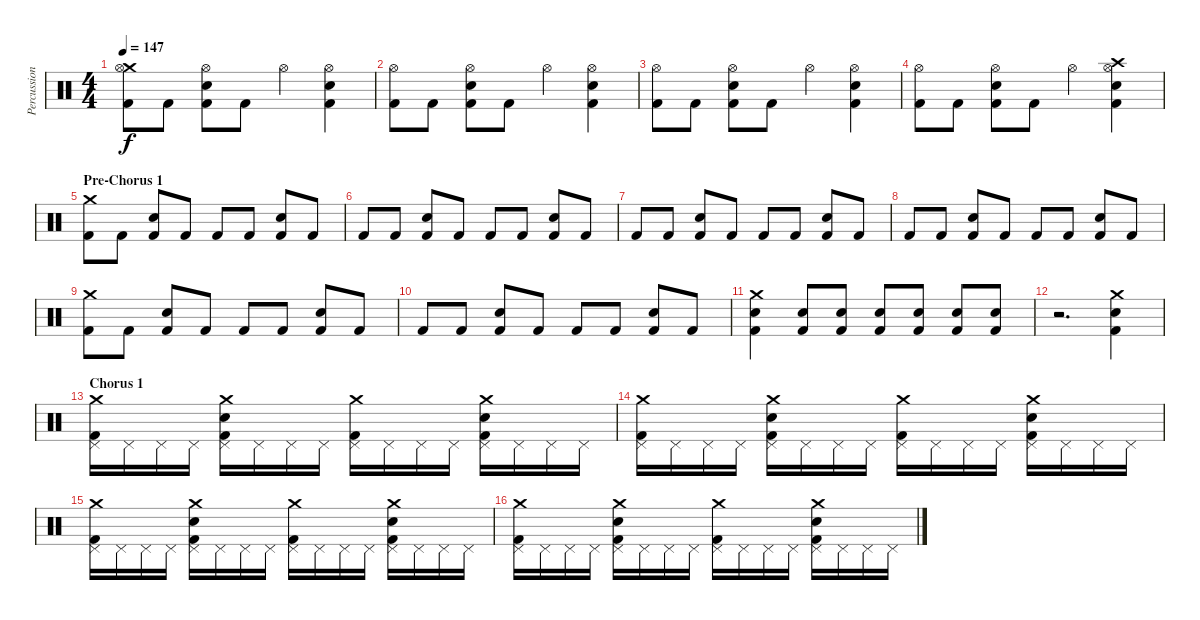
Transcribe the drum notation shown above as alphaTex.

\track ("Percussions" "Percussion") {instrument percussion}
\staff {score}
\articulation defaults
\ts (4 4)
\tempo 147
\clef neutral
\ks c
("Crash medium (hit)" "Hi-Hat (open)" "Kick (hit) 2").8{dy f} "Kick (hit) 2".8 ("Hi-Hat (open)" "Electric Snare (hit)" "Kick (hit) 2").8 "Kick (hit) 2".8 "Hi-Hat (open)".4 ("Hi-Hat (open)" "Electric Snare (hit)" "Kick (hit) 2").4 |
("Hi-Hat (open)" "Kick (hit) 2").8 "Kick (hit) 2".8 ("Hi-Hat (open)" "Electric Snare (hit)" "Kick (hit) 2").8 "Kick (hit) 2".8 "Hi-Hat (open)".4 ("Hi-Hat (open)" "Electric Snare (hit)" "Kick (hit) 2").4 |
("Hi-Hat (open)" "Kick (hit) 2").8 "Kick (hit) 2".8 ("Hi-Hat (open)" "Electric Snare (hit)" "Kick (hit) 2").8 "Kick (hit) 2".8 "Hi-Hat (open)".4 ("Hi-Hat (open)" "Electric Snare (hit)" "Kick (hit) 2").4 |
("Hi-Hat (open)" "Kick (hit) 2").8 "Kick (hit) 2".8 ("Hi-Hat (open)" "Electric Snare (hit)" "Kick (hit) 2").8 "Kick (hit) 2".8 "Hi-Hat (open)".4 ("Crash high (hit)" "Hi-Hat (open)" "Electric Snare (hit)" "Kick (hit) 2").4 |
\section ("" "Pre-Chorus 1")
("Crash medium (hit)" "Kick (hit) 2").8 "Kick (hit) 2".8 ("Electric Snare (hit)" "Kick (hit) 2").8 "Kick (hit) 2".8 "Kick (hit) 2".8 "Kick (hit) 2".8 ("Electric Snare (hit)" "Kick (hit) 2").8 "Kick (hit) 2".8 |
"Kick (hit) 2".8 "Kick (hit) 2".8 ("Electric Snare (hit)" "Kick (hit) 2").8 "Kick (hit) 2".8 "Kick (hit) 2".8 "Kick (hit) 2".8 ("Electric Snare (hit)" "Kick (hit) 2").8 "Kick (hit) 2".8 |
"Kick (hit) 2".8 "Kick (hit) 2".8 ("Electric Snare (hit)" "Kick (hit) 2").8 "Kick (hit) 2".8 "Kick (hit) 2".8 "Kick (hit) 2".8 ("Electric Snare (hit)" "Kick (hit) 2").8 "Kick (hit) 2".8 |
"Kick (hit) 2".8 "Kick (hit) 2".8 ("Electric Snare (hit)" "Kick (hit) 2").8 "Kick (hit) 2".8 "Kick (hit) 2".8 "Kick (hit) 2".8 ("Electric Snare (hit)" "Kick (hit) 2").8 "Kick (hit) 2".8 |
("Crash medium (hit)" "Kick (hit) 2").8 "Kick (hit) 2".8 ("Electric Snare (hit)" "Kick (hit) 2").8 "Kick (hit) 2".8 "Kick (hit) 2".8 "Kick (hit) 2".8 ("Electric Snare (hit)" "Kick (hit) 2").8 "Kick (hit) 2".8 |
"Kick (hit) 2".8 "Kick (hit) 2".8 ("Electric Snare (hit)" "Kick (hit) 2").8 "Kick (hit) 2".8 "Kick (hit) 2".8 "Kick (hit) 2".8 ("Electric Snare (hit)" "Kick (hit) 2").8 "Kick (hit) 2".8 |
("Crash medium (hit)" "Electric Snare (hit)" "Kick (hit) 2").4 ("Electric Snare (hit)" "Kick (hit) 2").8 ("Electric Snare (hit)" "Kick (hit) 2").8 ("Electric Snare (hit)" "Kick (hit) 2").8 ("Electric Snare (hit)" "Kick (hit) 2").8 ("Electric Snare (hit)" "Kick (hit) 2").8 ("Electric Snare (hit)" "Kick (hit) 2").8 |
r.2{d} ("Crash medium (hit)" "Electric Snare (hit)" "Kick (hit) 2").4 |
\section ("" "Chorus 1")
("Crash medium (hit)" "Pedal Hi-Hat (hit)" "Kick (hit) 2").16 "Pedal Hi-Hat (hit)".16 "Pedal Hi-Hat (hit)".16 "Pedal Hi-Hat (hit)".16 ("Crash medium (hit)" "Pedal Hi-Hat (hit)" "Electric Snare (hit)" "Kick (hit) 2").16 "Pedal Hi-Hat (hit)".16 "Pedal Hi-Hat (hit)".16 "Pedal Hi-Hat (hit)".16 ("Crash medium (hit)" "Pedal Hi-Hat (hit)" "Kick (hit) 2").16 "Pedal Hi-Hat (hit)".16 "Pedal Hi-Hat (hit)".16 "Pedal Hi-Hat (hit)".16 ("Crash medium (hit)" "Pedal Hi-Hat (hit)" "Electric Snare (hit)" "Kick (hit) 2").16 "Pedal Hi-Hat (hit)".16 "Pedal Hi-Hat (hit)".16 "Pedal Hi-Hat (hit)".16 |
("Crash medium (hit)" "Pedal Hi-Hat (hit)" "Kick (hit) 2").16 "Pedal Hi-Hat (hit)".16 "Pedal Hi-Hat (hit)".16 "Pedal Hi-Hat (hit)".16 ("Crash medium (hit)" "Pedal Hi-Hat (hit)" "Electric Snare (hit)" "Kick (hit) 2").16 "Pedal Hi-Hat (hit)".16 "Pedal Hi-Hat (hit)".16 "Pedal Hi-Hat (hit)".16 ("Crash medium (hit)" "Pedal Hi-Hat (hit)" "Kick (hit) 2").16 "Pedal Hi-Hat (hit)".16 "Pedal Hi-Hat (hit)".16 "Pedal Hi-Hat (hit)".16 ("Crash medium (hit)" "Pedal Hi-Hat (hit)" "Electric Snare (hit)" "Kick (hit) 2").16 "Pedal Hi-Hat (hit)".16 "Pedal Hi-Hat (hit)".16 "Pedal Hi-Hat (hit)".16 |
("Crash medium (hit)" "Pedal Hi-Hat (hit)" "Kick (hit) 2").16 "Pedal Hi-Hat (hit)".16 "Pedal Hi-Hat (hit)".16 "Pedal Hi-Hat (hit)".16 ("Crash medium (hit)" "Pedal Hi-Hat (hit)" "Electric Snare (hit)" "Kick (hit) 2").16 "Pedal Hi-Hat (hit)".16 "Pedal Hi-Hat (hit)".16 "Pedal Hi-Hat (hit)".16 ("Crash medium (hit)" "Pedal Hi-Hat (hit)" "Kick (hit) 2").16 "Pedal Hi-Hat (hit)".16 "Pedal Hi-Hat (hit)".16 "Pedal Hi-Hat (hit)".16 ("Crash medium (hit)" "Pedal Hi-Hat (hit)" "Electric Snare (hit)" "Kick (hit) 2").16 "Pedal Hi-Hat (hit)".16 "Pedal Hi-Hat (hit)".16 "Pedal Hi-Hat (hit)".16 |
("Crash medium (hit)" "Pedal Hi-Hat (hit)" "Kick (hit) 2").16 "Pedal Hi-Hat (hit)".16 "Pedal Hi-Hat (hit)".16 "Pedal Hi-Hat (hit)".16 ("Crash medium (hit)" "Pedal Hi-Hat (hit)" "Electric Snare (hit)" "Kick (hit) 2").16 "Pedal Hi-Hat (hit)".16 "Pedal Hi-Hat (hit)".16 "Pedal Hi-Hat (hit)".16 ("Crash medium (hit)" "Pedal Hi-Hat (hit)" "Kick (hit) 2").16 "Pedal Hi-Hat (hit)".16 "Pedal Hi-Hat (hit)".16 "Pedal Hi-Hat (hit)".16 ("Crash medium (hit)" "Pedal Hi-Hat (hit)" "Electric Snare (hit)" "Kick (hit) 2").16 "Pedal Hi-Hat (hit)".16 "Pedal Hi-Hat (hit)".16 "Pedal Hi-Hat (hit)".16
